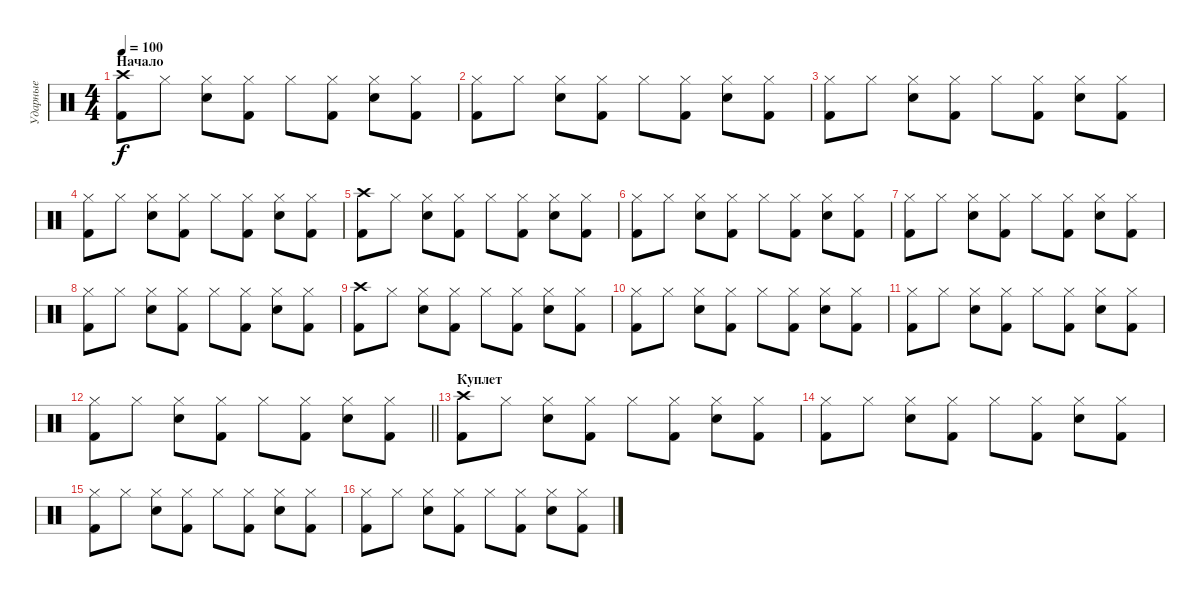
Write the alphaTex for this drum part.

\track ("Ударные" "Ударные") {instrument percussion}
\staff {score}
\articulation defaults
\ts (4 4)
\section ("" "Начало")
\tempo 100
\clef neutral
\ks c
("Crash high (hit)" "Kick (hit) 2").8{dy f} "Hi-Hat (closed)".8 ("Hi-Hat (closed)" "Snare (hit) 2").8 ("Hi-Hat (closed)" "Kick (hit) 2").8 "Hi-Hat (closed)".8 ("Hi-Hat (closed)" "Kick (hit) 2").8 ("Hi-Hat (closed)" "Snare (hit) 2").8 ("Hi-Hat (closed)" "Kick (hit) 2").8 |
("Hi-Hat (closed)" "Kick (hit) 2").8 "Hi-Hat (closed)".8 ("Hi-Hat (closed)" "Snare (hit) 2").8 ("Hi-Hat (closed)" "Kick (hit) 2").8 "Hi-Hat (closed)".8 ("Hi-Hat (closed)" "Kick (hit) 2").8 ("Hi-Hat (closed)" "Snare (hit) 2").8 ("Hi-Hat (closed)" "Kick (hit) 2").8 |
("Hi-Hat (closed)" "Kick (hit) 2").8 "Hi-Hat (closed)".8 ("Hi-Hat (closed)" "Snare (hit) 2").8 ("Hi-Hat (closed)" "Kick (hit) 2").8 "Hi-Hat (closed)".8 ("Hi-Hat (closed)" "Kick (hit) 2").8 ("Hi-Hat (closed)" "Snare (hit) 2").8 ("Hi-Hat (closed)" "Kick (hit) 2").8 |
("Hi-Hat (closed)" "Kick (hit) 2").8 "Hi-Hat (closed)".8 ("Hi-Hat (closed)" "Snare (hit) 2").8 ("Hi-Hat (closed)" "Kick (hit) 2").8 "Hi-Hat (closed)".8 ("Hi-Hat (closed)" "Kick (hit) 2").8 ("Hi-Hat (closed)" "Snare (hit) 2").8 ("Hi-Hat (closed)" "Kick (hit) 2").8 |
("Crash high (hit)" "Kick (hit) 2").8 "Hi-Hat (closed)".8 ("Hi-Hat (closed)" "Snare (hit) 2").8 ("Hi-Hat (closed)" "Kick (hit) 2").8 "Hi-Hat (closed)".8 ("Hi-Hat (closed)" "Kick (hit) 2").8 ("Hi-Hat (closed)" "Snare (hit) 2").8 ("Hi-Hat (closed)" "Kick (hit) 2").8 |
("Hi-Hat (closed)" "Kick (hit) 2").8 "Hi-Hat (closed)".8 ("Hi-Hat (closed)" "Snare (hit) 2").8 ("Hi-Hat (closed)" "Kick (hit) 2").8 "Hi-Hat (closed)".8 ("Hi-Hat (closed)" "Kick (hit) 2").8 ("Hi-Hat (closed)" "Snare (hit) 2").8 ("Hi-Hat (closed)" "Kick (hit) 2").8 |
("Hi-Hat (closed)" "Kick (hit) 2").8 "Hi-Hat (closed)".8 ("Hi-Hat (closed)" "Snare (hit) 2").8 ("Hi-Hat (closed)" "Kick (hit) 2").8 "Hi-Hat (closed)".8 ("Hi-Hat (closed)" "Kick (hit) 2").8 ("Hi-Hat (closed)" "Snare (hit) 2").8 ("Hi-Hat (closed)" "Kick (hit) 2").8 |
("Hi-Hat (closed)" "Kick (hit) 2").8 "Hi-Hat (closed)".8 ("Hi-Hat (closed)" "Snare (hit) 2").8 ("Hi-Hat (closed)" "Kick (hit) 2").8 "Hi-Hat (closed)".8 ("Hi-Hat (closed)" "Kick (hit) 2").8 ("Hi-Hat (closed)" "Snare (hit) 2").8 ("Hi-Hat (closed)" "Kick (hit) 2").8 |
("Crash high (hit)" "Kick (hit) 2").8 "Hi-Hat (closed)".8 ("Hi-Hat (closed)" "Snare (hit) 2").8 ("Hi-Hat (closed)" "Kick (hit) 2").8 "Hi-Hat (closed)".8 ("Hi-Hat (closed)" "Kick (hit) 2").8 ("Hi-Hat (closed)" "Snare (hit) 2").8 ("Hi-Hat (closed)" "Kick (hit) 2").8 |
("Hi-Hat (closed)" "Kick (hit) 2").8 "Hi-Hat (closed)".8 ("Hi-Hat (closed)" "Snare (hit) 2").8 ("Hi-Hat (closed)" "Kick (hit) 2").8 "Hi-Hat (closed)".8 ("Hi-Hat (closed)" "Kick (hit) 2").8 ("Hi-Hat (closed)" "Snare (hit) 2").8 ("Hi-Hat (closed)" "Kick (hit) 2").8 |
("Hi-Hat (closed)" "Kick (hit) 2").8 "Hi-Hat (closed)".8 ("Hi-Hat (closed)" "Snare (hit) 2").8 ("Hi-Hat (closed)" "Kick (hit) 2").8 "Hi-Hat (closed)".8 ("Hi-Hat (closed)" "Kick (hit) 2").8 ("Hi-Hat (closed)" "Snare (hit) 2").8 ("Hi-Hat (closed)" "Kick (hit) 2").8 |
\barLineRight lightlight
("Hi-Hat (closed)" "Kick (hit) 2").8 "Hi-Hat (closed)".8 ("Hi-Hat (closed)" "Snare (hit) 2").8 ("Hi-Hat (closed)" "Kick (hit) 2").8 "Hi-Hat (closed)".8 ("Hi-Hat (closed)" "Kick (hit) 2").8 ("Hi-Hat (closed)" "Snare (hit) 2").8 ("Hi-Hat (closed)" "Kick (hit) 2").8 |
\section ("" "Куплет")
("Crash high (hit)" "Kick (hit) 2").8 "Hi-Hat (closed)".8 ("Hi-Hat (closed)" "Snare (hit) 2").8 ("Hi-Hat (closed)" "Kick (hit) 2").8 "Hi-Hat (closed)".8 ("Hi-Hat (closed)" "Kick (hit) 2").8 ("Hi-Hat (closed)" "Snare (hit) 2").8 ("Hi-Hat (closed)" "Kick (hit) 2").8 |
("Hi-Hat (closed)" "Kick (hit) 2").8 "Hi-Hat (closed)".8 ("Hi-Hat (closed)" "Snare (hit) 2").8 ("Hi-Hat (closed)" "Kick (hit) 2").8 "Hi-Hat (closed)".8 ("Hi-Hat (closed)" "Kick (hit) 2").8 ("Hi-Hat (closed)" "Snare (hit) 2").8 ("Hi-Hat (closed)" "Kick (hit) 2").8 |
("Hi-Hat (closed)" "Kick (hit) 2").8 "Hi-Hat (closed)".8 ("Hi-Hat (closed)" "Snare (hit) 2").8 ("Hi-Hat (closed)" "Kick (hit) 2").8 "Hi-Hat (closed)".8 ("Hi-Hat (closed)" "Kick (hit) 2").8 ("Hi-Hat (closed)" "Snare (hit) 2").8 ("Hi-Hat (closed)" "Kick (hit) 2").8 |
("Hi-Hat (closed)" "Kick (hit) 2").8 "Hi-Hat (closed)".8 ("Hi-Hat (closed)" "Snare (hit) 2").8 ("Hi-Hat (closed)" "Kick (hit) 2").8 "Hi-Hat (closed)".8 ("Hi-Hat (closed)" "Kick (hit) 2").8 ("Hi-Hat (closed)" "Snare (hit) 2").8 ("Hi-Hat (closed)" "Kick (hit) 2").8
